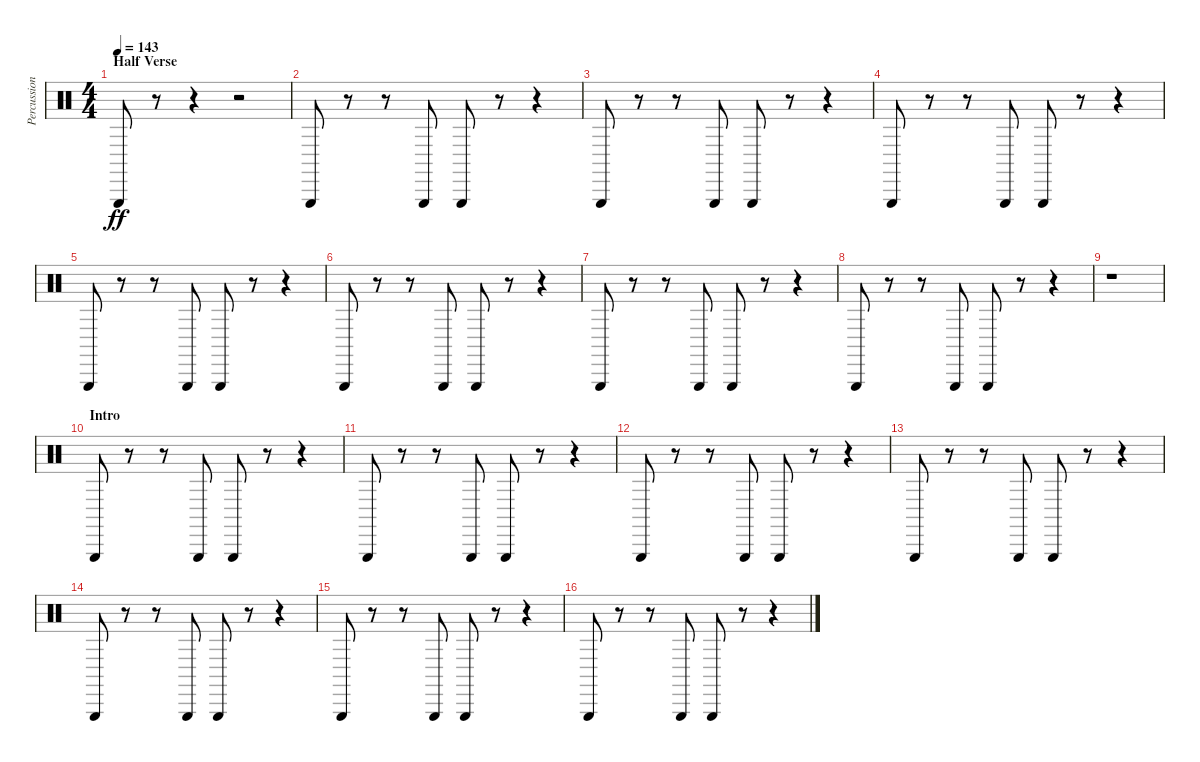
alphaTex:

\track ("Percussion" "Percussion") {instrument percussion}
\staff {score}
\articulation defaults
\ts (4 4)
\section ("" "Half Verse")
\tempo 143
\clef neutral
\ks c "Triangle (hit)".8{dy ff}
r.8 r.4 r.2 |
"Triangle (hit)".8 r.8 r.8 "Triangle (hit)".8 "Triangle (hit)".8 r.8 r.4 |
"Triangle (hit)".8 r.8 r.8 "Triangle (hit)".8 "Triangle (hit)".8 r.8 r.4 |
"Triangle (hit)".8 r.8 r.8 "Triangle (hit)".8 "Triangle (hit)".8 r.8 r.4 |
"Triangle (hit)".8 r.8 r.8 "Triangle (hit)".8 "Triangle (hit)".8 r.8 r.4 |
"Triangle (hit)".8 r.8 r.8 "Triangle (hit)".8 "Triangle (hit)".8 r.8 r.4 |
"Triangle (hit)".8 r.8 r.8 "Triangle (hit)".8 "Triangle (hit)".8 r.8 r.4 |
"Triangle (hit)".8 r.8 r.8 "Triangle (hit)".8 "Triangle (hit)".8 r.8 r.4 |
r.1 |
\section ("" "Intro")
"Triangle (hit)".8{volume 14 balance 2} r.8 r.8 "Triangle (hit)".8 "Triangle (hit)".8 r.8 r.4 |
"Triangle (hit)".8 r.8 r.8 "Triangle (hit)".8 "Triangle (hit)".8 r.8 r.4 |
"Triangle (hit)".8 r.8 r.8 "Triangle (hit)".8 "Triangle (hit)".8 r.8 r.4 |
"Triangle (hit)".8 r.8 r.8 "Triangle (hit)".8 "Triangle (hit)".8 r.8 r.4 |
"Triangle (hit)".8 r.8 r.8 "Triangle (hit)".8 "Triangle (hit)".8 r.8 r.4 |
"Triangle (hit)".8 r.8 r.8 "Triangle (hit)".8 "Triangle (hit)".8 r.8 r.4 |
"Triangle (hit)".8 r.8 r.8 "Triangle (hit)".8 "Triangle (hit)".8 r.8 r.4
